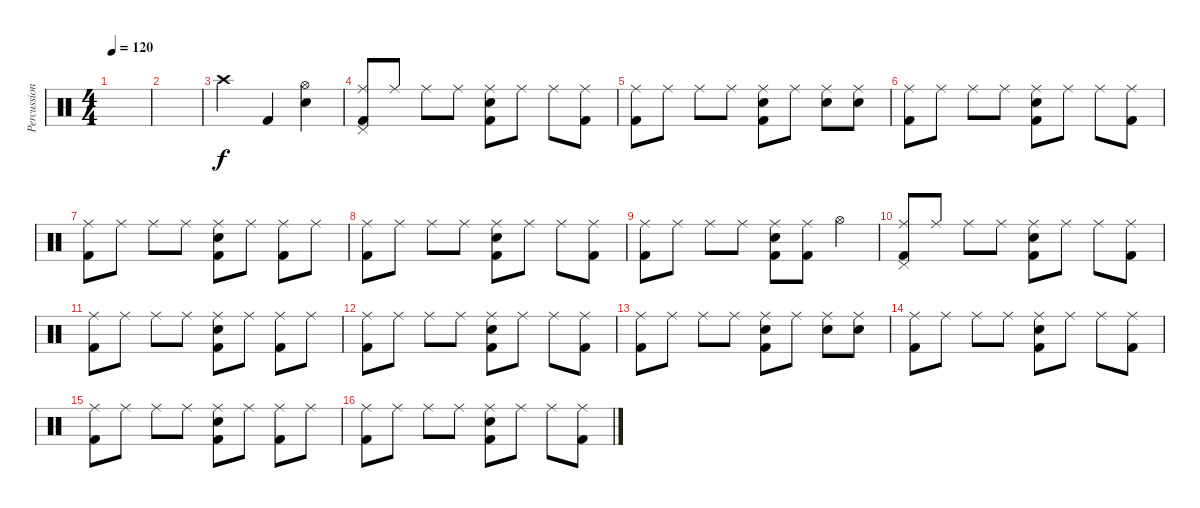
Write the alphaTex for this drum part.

\track ("Percussion" "Percussion") {instrument percussion}
\staff {score}
\articulation defaults
\ts (4 4)
\tempo 120
\clef neutral
\ks c
|
|
"Crash high (hit)".2 "Kick (hit) 2".4 ("Hi-Hat (open)" "Snare (hit) 2").4 |
("Ride (middle)" "Pedal Hi-Hat (hit)" "Kick (hit) 2").8 "Ride (middle)".8 "Ride (middle)".8 "Ride (middle)".8 ("Ride (middle)" "Snare (hit) 2" "Kick (hit) 2").8 "Ride (middle)".8 "Ride (middle)".8 ("Ride (middle)" "Kick (hit) 2").8 |
("Ride (middle)" "Kick (hit) 2").8 "Ride (middle)".8 "Ride (middle)".8 "Ride (middle)".8 ("Ride (middle)" "Snare (hit) 2" "Kick (hit) 2").8 "Ride (middle)".8 ("Ride (middle)" "Snare (hit) 2").8 ("Ride (middle)" "Snare (hit) 2").8 |
("Ride (middle)" "Kick (hit) 2").8 "Ride (middle)".8 "Ride (middle)".8 "Ride (middle)".8 ("Ride (middle)" "Snare (hit) 2" "Kick (hit) 2").8 "Ride (middle)".8 "Ride (middle)".8 ("Ride (middle)" "Kick (hit) 2").8 |
("Ride (middle)" "Kick (hit) 2").8 "Ride (middle)".8 "Ride (middle)".8 "Ride (middle)".8 ("Ride (middle)" "Snare (hit) 2" "Kick (hit) 2").8 "Ride (middle)".8 ("Ride (middle)" "Kick (hit) 2").8 "Ride (middle)".8 |
("Ride (middle)" "Kick (hit) 2").8 "Ride (middle)".8 "Ride (middle)".8 "Ride (middle)".8 ("Ride (middle)" "Snare (hit) 2" "Kick (hit) 2").8 "Ride (middle)".8 "Ride (middle)".8 ("Ride (middle)" "Kick (hit) 2").8 |
("Ride (middle)" "Kick (hit) 2").8 "Ride (middle)".8 "Ride (middle)".8 "Ride (middle)".8 ("Ride (middle)" "Snare (hit) 2" "Kick (hit) 2").8 ("Ride (middle)" "Kick (hit) 2").8 "Hi-Hat (open)".4 |
("Ride (middle)" "Pedal Hi-Hat (hit)" "Kick (hit) 2").8 "Ride (middle)".8 "Ride (middle)".8 "Ride (middle)".8 ("Ride (middle)" "Snare (hit) 2" "Kick (hit) 2").8 "Ride (middle)".8 "Ride (middle)".8 ("Ride (middle)" "Kick (hit) 2").8 |
("Ride (middle)" "Kick (hit) 2").8 "Ride (middle)".8 "Ride (middle)".8 "Ride (middle)".8 ("Ride (middle)" "Snare (hit) 2" "Kick (hit) 2").8 "Ride (middle)".8 ("Ride (middle)" "Kick (hit) 2").8 "Ride (middle)".8 |
("Ride (middle)" "Kick (hit) 2").8 "Ride (middle)".8 "Ride (middle)".8 "Ride (middle)".8 ("Ride (middle)" "Snare (hit) 2" "Kick (hit) 2").8 "Ride (middle)".8 "Ride (middle)".8 ("Ride (middle)" "Kick (hit) 2").8 |
("Ride (middle)" "Kick (hit) 2").8 "Ride (middle)".8 "Ride (middle)".8 "Ride (middle)".8 ("Ride (middle)" "Snare (hit) 2" "Kick (hit) 2").8 "Ride (middle)".8 ("Ride (middle)" "Snare (hit) 2").8 ("Ride (middle)" "Snare (hit) 2").8 |
("Ride (middle)" "Kick (hit) 2").8 "Ride (middle)".8 "Ride (middle)".8 "Ride (middle)".8 ("Ride (middle)" "Snare (hit) 2" "Kick (hit) 2").8 "Ride (middle)".8 "Ride (middle)".8 ("Ride (middle)" "Kick (hit) 2").8 |
("Ride (middle)" "Kick (hit) 2").8 "Ride (middle)".8 "Ride (middle)".8 "Ride (middle)".8 ("Ride (middle)" "Snare (hit) 2" "Kick (hit) 2").8 "Ride (middle)".8 ("Ride (middle)" "Kick (hit) 2").8 "Ride (middle)".8 |
("Ride (middle)" "Kick (hit) 2").8 "Ride (middle)".8 "Ride (middle)".8 "Ride (middle)".8 ("Ride (middle)" "Snare (hit) 2" "Kick (hit) 2").8 "Ride (middle)".8 "Ride (middle)".8 ("Ride (middle)" "Kick (hit) 2").8
